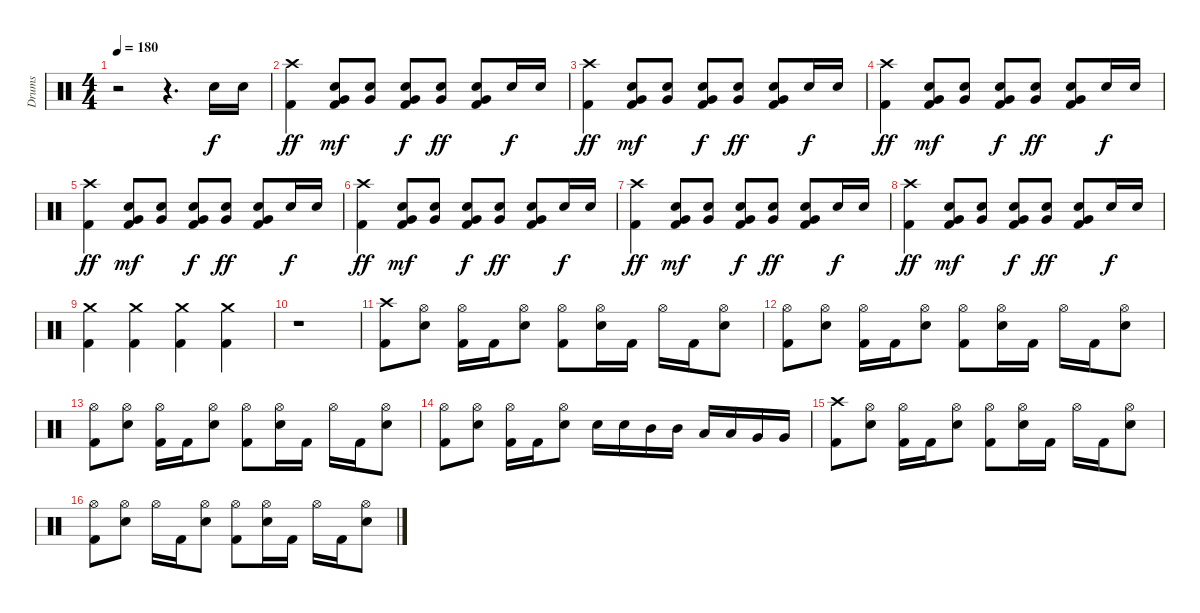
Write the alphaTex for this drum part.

\track ("Drums" "Drums") {instrument percussion}
\staff {score}
\articulation defaults
\ts (4 4)
\tempo 180
\clef neutral
\ks c
r.2{dy f} r.4{d} "Electric Snare (hit)".16 "Electric Snare (hit)".16 |
("Crash high (hit)" "Kick (hit) 2").4{dy ff} ("Very Low Tom (hit)" "Electric Snare (hit)" "Kick (hit) 2").8{dy mf} ("Very Low Tom (hit)" "Electric Snare (hit)").8 ("Very Low Tom (hit)" "Electric Snare (hit)" "Kick (hit) 2").8{dy f} ("Very Low Tom (hit)" "Electric Snare (hit)").8{dy ff} ("Very Low Tom (hit)" "Electric Snare (hit)" "Kick (hit) 2").8 "Electric Snare (hit)".16{dy f} "Electric Snare (hit)".16 |
("Crash high (hit)" "Kick (hit) 2").4{dy ff} ("Very Low Tom (hit)" "Electric Snare (hit)" "Kick (hit) 2").8{dy mf} ("Very Low Tom (hit)" "Electric Snare (hit)").8 ("Very Low Tom (hit)" "Electric Snare (hit)" "Kick (hit) 2").8{dy f} ("Very Low Tom (hit)" "Electric Snare (hit)").8{dy ff} ("Very Low Tom (hit)" "Electric Snare (hit)" "Kick (hit) 2").8 "Electric Snare (hit)".16{dy f} "Electric Snare (hit)".16 |
("Crash high (hit)" "Kick (hit) 2").4{dy ff} ("Very Low Tom (hit)" "Electric Snare (hit)" "Kick (hit) 2").8{dy mf} ("Very Low Tom (hit)" "Electric Snare (hit)").8 ("Very Low Tom (hit)" "Electric Snare (hit)" "Kick (hit) 2").8{dy f} ("Very Low Tom (hit)" "Electric Snare (hit)").8{dy ff} ("Very Low Tom (hit)" "Electric Snare (hit)" "Kick (hit) 2").8 "Electric Snare (hit)".16{dy f} "Electric Snare (hit)".16 |
("Crash high (hit)" "Kick (hit) 2").4{dy ff} ("Very Low Tom (hit)" "Electric Snare (hit)" "Kick (hit) 2").8{dy mf} ("Very Low Tom (hit)" "Electric Snare (hit)").8 ("Very Low Tom (hit)" "Electric Snare (hit)" "Kick (hit) 2").8{dy f} ("Very Low Tom (hit)" "Electric Snare (hit)").8{dy ff} ("Very Low Tom (hit)" "Electric Snare (hit)" "Kick (hit) 2").8 "Electric Snare (hit)".16{dy f} "Electric Snare (hit)".16 |
("Crash high (hit)" "Kick (hit) 2").4{dy ff} ("Very Low Tom (hit)" "Electric Snare (hit)" "Kick (hit) 2").8{dy mf} ("Very Low Tom (hit)" "Electric Snare (hit)").8 ("Very Low Tom (hit)" "Electric Snare (hit)" "Kick (hit) 2").8{dy f} ("Very Low Tom (hit)" "Electric Snare (hit)").8{dy ff} ("Very Low Tom (hit)" "Electric Snare (hit)" "Kick (hit) 2").8 "Electric Snare (hit)".16{dy f} "Electric Snare (hit)".16 |
("Crash high (hit)" "Kick (hit) 2").4{dy ff} ("Very Low Tom (hit)" "Electric Snare (hit)" "Kick (hit) 2").8{dy mf} ("Very Low Tom (hit)" "Electric Snare (hit)").8 ("Very Low Tom (hit)" "Electric Snare (hit)" "Kick (hit) 2").8{dy f} ("Very Low Tom (hit)" "Electric Snare (hit)").8{dy ff} ("Very Low Tom (hit)" "Electric Snare (hit)" "Kick (hit) 2").8 "Electric Snare (hit)".16{dy f} "Electric Snare (hit)".16 |
("Crash high (hit)" "Kick (hit) 2").4{dy ff} ("Very Low Tom (hit)" "Electric Snare (hit)" "Kick (hit) 2").8{dy mf} ("Very Low Tom (hit)" "Electric Snare (hit)").8 ("Very Low Tom (hit)" "Electric Snare (hit)" "Kick (hit) 2").8{dy f} ("Very Low Tom (hit)" "Electric Snare (hit)").8{dy ff} ("Very Low Tom (hit)" "Electric Snare (hit)" "Kick (hit) 2").8 "Electric Snare (hit)".16{dy f} "Electric Snare (hit)".16 |
("Crash medium (hit)" "Kick (hit) 2").4 ("Crash medium (hit)" "Kick (hit) 2").4 ("Crash medium (hit)" "Kick (hit) 2").4 ("Crash medium (hit)" "Kick (hit) 2").4 |
r.1{volume 16} |
("Crash high (hit)" "Kick (hit) 2").8 ("Hi-Hat (open)" "Electric Snare (hit)").8 ("Hi-Hat (open)" "Kick (hit) 2").16 "Kick (hit) 2".16 ("Hi-Hat (open)" "Electric Snare (hit)").8 ("Hi-Hat (open)" "Kick (hit) 2").8 ("Hi-Hat (open)" "Electric Snare (hit)").16 "Kick (hit) 2".16 "Hi-Hat (open)".16 "Kick (hit) 2".16 ("Hi-Hat (open)" "Electric Snare (hit)").8 |
("Hi-Hat (open)" "Kick (hit) 2").8 ("Hi-Hat (open)" "Electric Snare (hit)").8 ("Hi-Hat (open)" "Kick (hit) 2").16 "Kick (hit) 2".16 ("Hi-Hat (open)" "Electric Snare (hit)").8 ("Hi-Hat (open)" "Kick (hit) 2").8 ("Hi-Hat (open)" "Electric Snare (hit)").16 "Kick (hit) 2".16 "Hi-Hat (open)".16 "Kick (hit) 2".16 ("Hi-Hat (open)" "Electric Snare (hit)").8 |
("Hi-Hat (open)" "Kick (hit) 2").8 ("Hi-Hat (open)" "Electric Snare (hit)").8 ("Hi-Hat (open)" "Kick (hit) 2").16 "Kick (hit) 2".16 ("Hi-Hat (open)" "Electric Snare (hit)").8 ("Hi-Hat (open)" "Kick (hit) 2").8 ("Hi-Hat (open)" "Electric Snare (hit)").16 "Kick (hit) 2".16 "Hi-Hat (open)".16 "Kick (hit) 2".16 ("Hi-Hat (open)" "Electric Snare (hit)").8 |
("Hi-Hat (open)" "Kick (hit) 2").8 ("Hi-Hat (open)" "Electric Snare (hit)").8 ("Hi-Hat (open)" "Kick (hit) 2").16 "Kick (hit) 2".16 ("Hi-Hat (open)" "Electric Snare (hit)").8 "Electric Snare (hit)".16 "Electric Snare (hit)".16 "Mid Tom (hit)".16 "Mid Tom (hit)".16 "Low Tom (hit)".16 "Low Tom (hit)".16 "Very Low Tom (hit)".16 "Very Low Tom (hit)".16 |
("Crash high (hit)" "Kick (hit) 2").8 ("Hi-Hat (open)" "Electric Snare (hit)").8 ("Hi-Hat (open)" "Kick (hit) 2").16 "Kick (hit) 2".16 ("Hi-Hat (open)" "Electric Snare (hit)").8 ("Hi-Hat (open)" "Kick (hit) 2").8 ("Hi-Hat (open)" "Electric Snare (hit)").16 "Kick (hit) 2".16 "Hi-Hat (open)".16 "Kick (hit) 2".16 ("Hi-Hat (open)" "Electric Snare (hit)").8 |
("Hi-Hat (open)" "Kick (hit) 2").8 ("Hi-Hat (open)" "Electric Snare (hit)").8 "Hi-Hat (open)".16 "Kick (hit) 2".16 ("Hi-Hat (open)" "Electric Snare (hit)").8 ("Hi-Hat (open)" "Kick (hit) 2").8 ("Hi-Hat (open)" "Electric Snare (hit)").16 "Kick (hit) 2".16 "Hi-Hat (open)".16 "Kick (hit) 2".16 ("Hi-Hat (open)" "Electric Snare (hit)").8
